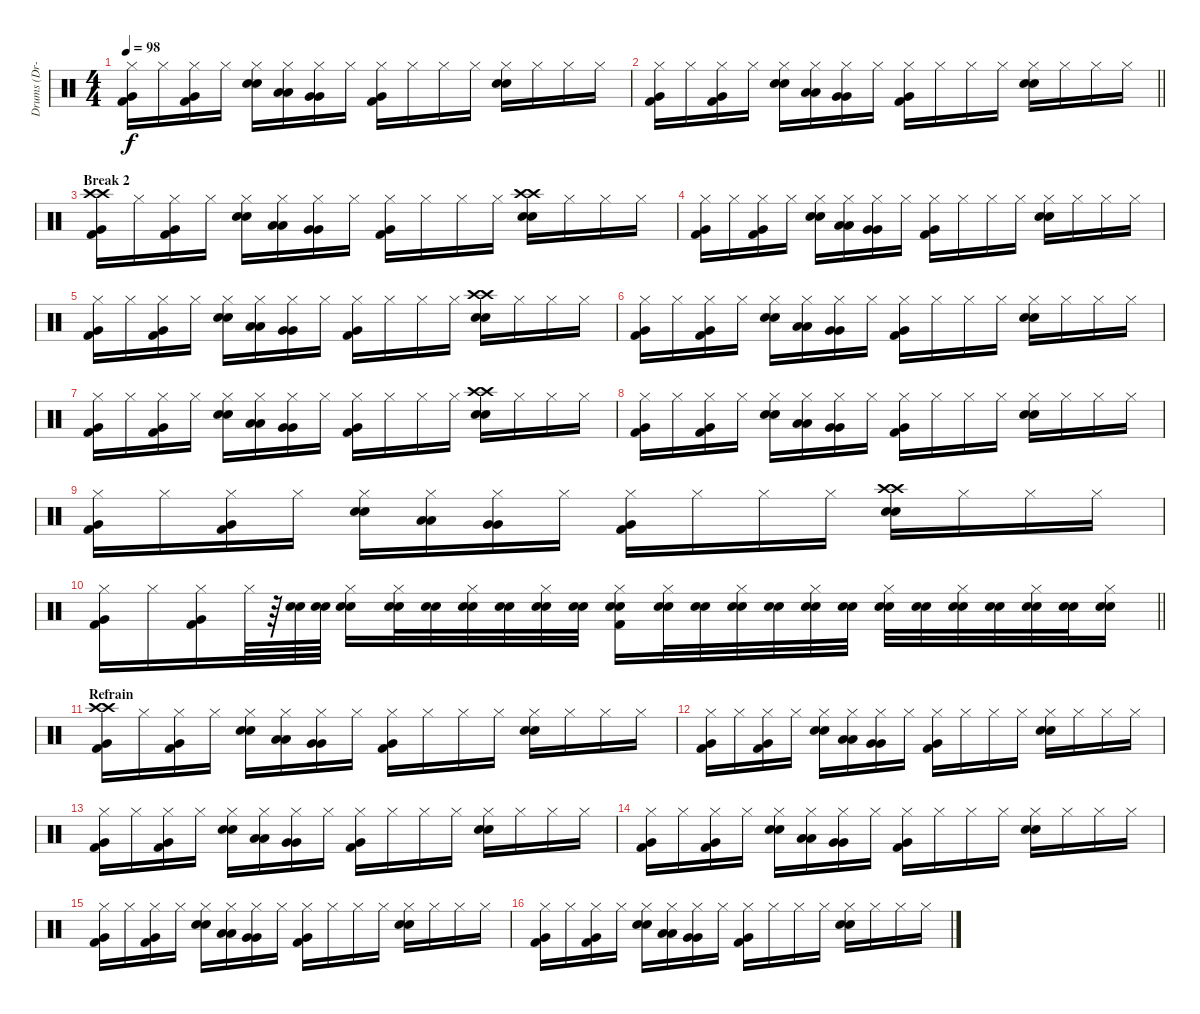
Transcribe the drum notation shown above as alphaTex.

\track ("Drums (Dr-0)" "Drums (Dr-") {instrument percussion}
\staff {score}
\articulation defaults
\ts (4 4)
\tempo 98
\clef neutral
\ks c
("Hi-Hat (closed)" "Very Low Tom (hit)" "Kick (hit) 2").16{dy f} "Hi-Hat (closed)".16 ("Hi-Hat (closed)" "Very Low Tom (hit)" "Kick (hit) 2").16 "Hi-Hat (closed)".16 ("Hi-Hat (closed)" "Electric Snare (hit)" "Snare (hit) 2").16 ("Hi-Hat (closed)" "Low Tom (hit)" "Low Tom (hit)").16 ("Hi-Hat (closed)" "Very Low Tom (hit)" "Very Low Tom (hit)").16 "Hi-Hat (closed)".16 ("Hi-Hat (closed)" "Very Low Tom (hit)" "Kick (hit) 2").16 "Hi-Hat (closed)".16 "Hi-Hat (closed)".16 "Hi-Hat (closed)".16 ("Hi-Hat (closed)" "Electric Snare (hit)" "Snare (hit) 2").16 "Hi-Hat (closed)".16 "Hi-Hat (closed)".16 "Hi-Hat (closed)".16 |
\barLineRight lightlight
("Hi-Hat (closed)" "Very Low Tom (hit)" "Kick (hit) 2").16 "Hi-Hat (closed)".16 ("Hi-Hat (closed)" "Very Low Tom (hit)" "Kick (hit) 2").16 "Hi-Hat (closed)".16 ("Hi-Hat (closed)" "Electric Snare (hit)" "Snare (hit) 2").16 ("Hi-Hat (closed)" "Low Tom (hit)" "Low Tom (hit)").16 ("Hi-Hat (closed)" "Very Low Tom (hit)" "Very Low Tom (hit)").16 "Hi-Hat (closed)".16 ("Hi-Hat (closed)" "Very Low Tom (hit)" "Kick (hit) 2").16 "Hi-Hat (closed)".16 "Hi-Hat (closed)".16 "Hi-Hat (closed)".16 ("Hi-Hat (closed)" "Electric Snare (hit)" "Snare (hit) 2").16 "Hi-Hat (closed)".16 "Hi-Hat (closed)".16 "Hi-Hat (closed)".16 |
\section ("" "Break 2")
("Crash high (hit)" "Crash high (hit)" "Very Low Tom (hit)" "Kick (hit) 2").16 "Hi-Hat (closed)".16 ("Hi-Hat (closed)" "Very Low Tom (hit)" "Kick (hit) 2").16 "Hi-Hat (closed)".16 ("Hi-Hat (closed)" "Electric Snare (hit)" "Snare (hit) 2").16 ("Hi-Hat (closed)" "Low Tom (hit)" "Low Tom (hit)").16 ("Hi-Hat (closed)" "Very Low Tom (hit)" "Very Low Tom (hit)").16 "Hi-Hat (closed)".16 ("Hi-Hat (closed)" "Very Low Tom (hit)" "Kick (hit) 2").16 "Hi-Hat (closed)".16 "Hi-Hat (closed)".16 "Hi-Hat (closed)".16 ("Crash high (hit)" "Crash high (hit)" "Electric Snare (hit)" "Snare (hit) 2").16 "Hi-Hat (closed)".16 "Hi-Hat (closed)".16 "Hi-Hat (closed)".16 |
("Hi-Hat (closed)" "Very Low Tom (hit)" "Kick (hit) 2").16 "Hi-Hat (closed)".16 ("Hi-Hat (closed)" "Very Low Tom (hit)" "Kick (hit) 2").16 "Hi-Hat (closed)".16 ("Hi-Hat (closed)" "Electric Snare (hit)" "Snare (hit) 2").16 ("Hi-Hat (closed)" "Low Tom (hit)" "Low Tom (hit)").16 ("Hi-Hat (closed)" "Very Low Tom (hit)" "Very Low Tom (hit)").16 "Hi-Hat (closed)".16 ("Hi-Hat (closed)" "Very Low Tom (hit)" "Kick (hit) 2").16 "Hi-Hat (closed)".16 "Hi-Hat (closed)".16 "Hi-Hat (closed)".16 ("Hi-Hat (closed)" "Electric Snare (hit)" "Snare (hit) 2").16 "Hi-Hat (closed)".16 "Hi-Hat (closed)".16 "Hi-Hat (closed)".16 |
("Hi-Hat (closed)" "Very Low Tom (hit)" "Kick (hit) 2").16 "Hi-Hat (closed)".16 ("Hi-Hat (closed)" "Very Low Tom (hit)" "Kick (hit) 2").16 "Hi-Hat (closed)".16 ("Hi-Hat (closed)" "Electric Snare (hit)" "Snare (hit) 2").16 ("Hi-Hat (closed)" "Low Tom (hit)" "Low Tom (hit)").16 ("Hi-Hat (closed)" "Very Low Tom (hit)" "Very Low Tom (hit)").16 "Hi-Hat (closed)".16 ("Hi-Hat (closed)" "Very Low Tom (hit)" "Kick (hit) 2").16 "Hi-Hat (closed)".16 "Hi-Hat (closed)".16 "Hi-Hat (closed)".16 ("Crash high (hit)" "Crash high (hit)" "Electric Snare (hit)" "Snare (hit) 2").16 "Hi-Hat (closed)".16 "Hi-Hat (closed)".16 "Hi-Hat (closed)".16 |
("Hi-Hat (closed)" "Very Low Tom (hit)" "Kick (hit) 2").16 "Hi-Hat (closed)".16 ("Hi-Hat (closed)" "Very Low Tom (hit)" "Kick (hit) 2").16 "Hi-Hat (closed)".16 ("Hi-Hat (closed)" "Electric Snare (hit)" "Snare (hit) 2").16 ("Hi-Hat (closed)" "Low Tom (hit)" "Low Tom (hit)").16 ("Hi-Hat (closed)" "Very Low Tom (hit)" "Very Low Tom (hit)").16 "Hi-Hat (closed)".16 ("Hi-Hat (closed)" "Very Low Tom (hit)" "Kick (hit) 2").16 "Hi-Hat (closed)".16 "Hi-Hat (closed)".16 "Hi-Hat (closed)".16 ("Hi-Hat (closed)" "Electric Snare (hit)" "Snare (hit) 2").16 "Hi-Hat (closed)".16 "Hi-Hat (closed)".16 "Hi-Hat (closed)".16 |
("Hi-Hat (closed)" "Very Low Tom (hit)" "Kick (hit) 2").16 "Hi-Hat (closed)".16 ("Hi-Hat (closed)" "Very Low Tom (hit)" "Kick (hit) 2").16 "Hi-Hat (closed)".16 ("Hi-Hat (closed)" "Electric Snare (hit)" "Snare (hit) 2").16 ("Hi-Hat (closed)" "Low Tom (hit)" "Low Tom (hit)").16 ("Hi-Hat (closed)" "Very Low Tom (hit)" "Very Low Tom (hit)").16 "Hi-Hat (closed)".16 ("Hi-Hat (closed)" "Very Low Tom (hit)" "Kick (hit) 2").16 "Hi-Hat (closed)".16 "Hi-Hat (closed)".16 "Hi-Hat (closed)".16 ("Crash high (hit)" "Crash high (hit)" "Electric Snare (hit)" "Snare (hit) 2").16 "Hi-Hat (closed)".16 "Hi-Hat (closed)".16 "Hi-Hat (closed)".16 |
("Hi-Hat (closed)" "Very Low Tom (hit)" "Kick (hit) 2").16 "Hi-Hat (closed)".16 ("Hi-Hat (closed)" "Very Low Tom (hit)" "Kick (hit) 2").16 "Hi-Hat (closed)".16 ("Hi-Hat (closed)" "Electric Snare (hit)" "Snare (hit) 2").16 ("Hi-Hat (closed)" "Low Tom (hit)" "Low Tom (hit)").16 ("Hi-Hat (closed)" "Very Low Tom (hit)" "Very Low Tom (hit)").16 "Hi-Hat (closed)".16 ("Hi-Hat (closed)" "Very Low Tom (hit)" "Kick (hit) 2").16 "Hi-Hat (closed)".16 "Hi-Hat (closed)".16 "Hi-Hat (closed)".16 ("Hi-Hat (closed)" "Electric Snare (hit)" "Snare (hit) 2").16 "Hi-Hat (closed)".16 "Hi-Hat (closed)".16 "Hi-Hat (closed)".16 |
("Hi-Hat (closed)" "Very Low Tom (hit)" "Kick (hit) 2").16 "Hi-Hat (closed)".16 ("Hi-Hat (closed)" "Very Low Tom (hit)" "Kick (hit) 2").16 "Hi-Hat (closed)".16 ("Hi-Hat (closed)" "Electric Snare (hit)" "Snare (hit) 2").16 ("Hi-Hat (closed)" "Low Tom (hit)" "Low Tom (hit)").16 ("Hi-Hat (closed)" "Very Low Tom (hit)" "Very Low Tom (hit)").16 "Hi-Hat (closed)".16 ("Hi-Hat (closed)" "Very Low Tom (hit)" "Kick (hit) 2").16 "Hi-Hat (closed)".16 "Hi-Hat (closed)".16 "Hi-Hat (closed)".16 ("Crash high (hit)" "Crash high (hit)" "Electric Snare (hit)" "Snare (hit) 2").16 "Hi-Hat (closed)".16 "Hi-Hat (closed)".16 "Hi-Hat (closed)".16 |
\barLineRight lightlight
("Hi-Hat (closed)" "Very Low Tom (hit)" "Kick (hit) 2").16 "Hi-Hat (closed)".16 ("Hi-Hat (closed)" "Very Low Tom (hit)" "Kick (hit) 2").16 "Hi-Hat (closed)".64 r.64 ("Electric Snare (hit)" "Snare (hit) 2").64 ("Electric Snare (hit)" "Snare (hit) 2").64 ("Hi-Hat (closed)" "Electric Snare (hit)" "Snare (hit) 2").16 ("Hi-Hat (closed)" "Electric Snare (hit)" "Snare (hit) 2").32 ("Electric Snare (hit)" "Snare (hit) 2").32 ("Hi-Hat (closed)" "Electric Snare (hit)" "Snare (hit) 2").32 ("Electric Snare (hit)" "Snare (hit) 2").32 ("Hi-Hat (closed)" "Electric Snare (hit)" "Snare (hit) 2").32 ("Electric Snare (hit)" "Snare (hit) 2").32 ("Hi-Hat (closed)" "Electric Snare (hit)" "Snare (hit) 2" "Kick (hit) 2").16 ("Hi-Hat (closed)" "Electric Snare (hit)" "Snare (hit) 2").32 ("Electric Snare (hit)" "Snare (hit) 2").32 ("Hi-Hat (closed)" "Electric Snare (hit)" "Snare (hit) 2").32 ("Electric Snare (hit)" "Snare (hit) 2").32 ("Hi-Hat (closed)" "Electric Snare (hit)" "Snare (hit) 2").32 ("Electric Snare (hit)" "Snare (hit) 2").32 ("Hi-Hat (closed)" "Electric Snare (hit)" "Snare (hit) 2").32 ("Electric Snare (hit)" "Snare (hit) 2").32 ("Hi-Hat (closed)" "Electric Snare (hit)" "Snare (hit) 2").32 ("Electric Snare (hit)" "Snare (hit) 2").32 ("Hi-Hat (closed)" "Electric Snare (hit)" "Snare (hit) 2").32 ("Electric Snare (hit)" "Snare (hit) 2").32 ("Hi-Hat (closed)" "Electric Snare (hit)" "Snare (hit) 2").16 |
\section ("" "Refrain")
("Crash high (hit)" "Crash high (hit)" "Very Low Tom (hit)" "Kick (hit) 2").16 "Hi-Hat (closed)".16 ("Hi-Hat (closed)" "Very Low Tom (hit)" "Kick (hit) 2").16 "Hi-Hat (closed)".16 ("Hi-Hat (closed)" "Electric Snare (hit)" "Snare (hit) 2").16 ("Hi-Hat (closed)" "Low Tom (hit)" "Low Tom (hit)").16 ("Hi-Hat (closed)" "Very Low Tom (hit)" "Very Low Tom (hit)").16 "Hi-Hat (closed)".16 ("Hi-Hat (closed)" "Very Low Tom (hit)" "Kick (hit) 2").16 "Hi-Hat (closed)".16 "Hi-Hat (closed)".16 "Hi-Hat (closed)".16 ("Hi-Hat (closed)" "Electric Snare (hit)" "Snare (hit) 2").16 "Hi-Hat (closed)".16 "Hi-Hat (closed)".16 "Hi-Hat (closed)".16 |
("Hi-Hat (closed)" "Very Low Tom (hit)" "Kick (hit) 2").16 "Hi-Hat (closed)".16 ("Hi-Hat (closed)" "Very Low Tom (hit)" "Kick (hit) 2").16 "Hi-Hat (closed)".16 ("Hi-Hat (closed)" "Electric Snare (hit)" "Snare (hit) 2").16 ("Hi-Hat (closed)" "Low Tom (hit)" "Low Tom (hit)").16 ("Hi-Hat (closed)" "Very Low Tom (hit)" "Very Low Tom (hit)").16 "Hi-Hat (closed)".16 ("Hi-Hat (closed)" "Very Low Tom (hit)" "Kick (hit) 2").16 "Hi-Hat (closed)".16 "Hi-Hat (closed)".16 "Hi-Hat (closed)".16 ("Hi-Hat (closed)" "Electric Snare (hit)" "Snare (hit) 2").16 "Hi-Hat (closed)".16 "Hi-Hat (closed)".16 "Hi-Hat (closed)".16 |
("Hi-Hat (closed)" "Very Low Tom (hit)" "Kick (hit) 2").16 "Hi-Hat (closed)".16 ("Hi-Hat (closed)" "Very Low Tom (hit)" "Kick (hit) 2").16 "Hi-Hat (closed)".16 ("Hi-Hat (closed)" "Electric Snare (hit)" "Snare (hit) 2").16 ("Hi-Hat (closed)" "Low Tom (hit)" "Low Tom (hit)").16 ("Hi-Hat (closed)" "Very Low Tom (hit)" "Very Low Tom (hit)").16 "Hi-Hat (closed)".16 ("Hi-Hat (closed)" "Very Low Tom (hit)" "Kick (hit) 2").16 "Hi-Hat (closed)".16 "Hi-Hat (closed)".16 "Hi-Hat (closed)".16 ("Hi-Hat (closed)" "Electric Snare (hit)" "Snare (hit) 2").16 "Hi-Hat (closed)".16 "Hi-Hat (closed)".16 "Hi-Hat (closed)".16 |
("Hi-Hat (closed)" "Very Low Tom (hit)" "Kick (hit) 2").16 "Hi-Hat (closed)".16 ("Hi-Hat (closed)" "Very Low Tom (hit)" "Kick (hit) 2").16 "Hi-Hat (closed)".16 ("Hi-Hat (closed)" "Electric Snare (hit)" "Snare (hit) 2").16 ("Hi-Hat (closed)" "Low Tom (hit)" "Low Tom (hit)").16 ("Hi-Hat (closed)" "Very Low Tom (hit)" "Very Low Tom (hit)").16 "Hi-Hat (closed)".16 ("Hi-Hat (closed)" "Very Low Tom (hit)" "Kick (hit) 2").16 "Hi-Hat (closed)".16 "Hi-Hat (closed)".16 "Hi-Hat (closed)".16 ("Hi-Hat (closed)" "Electric Snare (hit)" "Snare (hit) 2").16 "Hi-Hat (closed)".16 "Hi-Hat (closed)".16 "Hi-Hat (closed)".16 |
("Hi-Hat (closed)" "Very Low Tom (hit)" "Kick (hit) 2").16 "Hi-Hat (closed)".16 ("Hi-Hat (closed)" "Very Low Tom (hit)" "Kick (hit) 2").16 "Hi-Hat (closed)".16 ("Hi-Hat (closed)" "Electric Snare (hit)" "Snare (hit) 2").16 ("Hi-Hat (closed)" "Low Tom (hit)" "Low Tom (hit)").16 ("Hi-Hat (closed)" "Very Low Tom (hit)" "Very Low Tom (hit)").16 "Hi-Hat (closed)".16 ("Hi-Hat (closed)" "Very Low Tom (hit)" "Kick (hit) 2").16 "Hi-Hat (closed)".16 "Hi-Hat (closed)".16 "Hi-Hat (closed)".16 ("Hi-Hat (closed)" "Electric Snare (hit)" "Snare (hit) 2").16 "Hi-Hat (closed)".16 "Hi-Hat (closed)".16 "Hi-Hat (closed)".16 |
("Hi-Hat (closed)" "Very Low Tom (hit)" "Kick (hit) 2").16 "Hi-Hat (closed)".16 ("Hi-Hat (closed)" "Very Low Tom (hit)" "Kick (hit) 2").16 "Hi-Hat (closed)".16 ("Hi-Hat (closed)" "Electric Snare (hit)" "Snare (hit) 2").16 ("Hi-Hat (closed)" "Low Tom (hit)" "Low Tom (hit)").16 ("Hi-Hat (closed)" "Very Low Tom (hit)" "Very Low Tom (hit)").16 "Hi-Hat (closed)".16 ("Hi-Hat (closed)" "Very Low Tom (hit)" "Kick (hit) 2").16 "Hi-Hat (closed)".16 "Hi-Hat (closed)".16 "Hi-Hat (closed)".16 ("Hi-Hat (closed)" "Electric Snare (hit)" "Snare (hit) 2").16 "Hi-Hat (closed)".16 "Hi-Hat (closed)".16 "Hi-Hat (closed)".16
